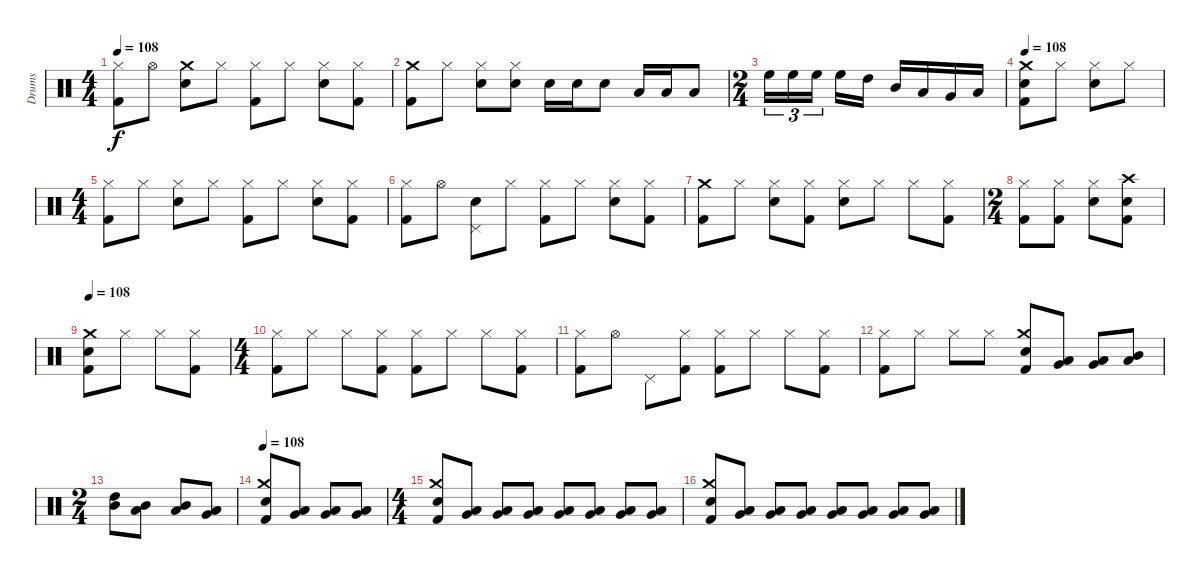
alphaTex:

\track ("Drums" "Drums") {instrument percussion}
\staff {score}
\articulation defaults
\ts (4 4)
\tempo 108
\clef neutral
\ks c
("Hi-Hat (closed)" "Kick (hit) 2").8{dy f} "Hi-Hat (open)".8 ("Crash medium (hit)" "Snare (hit) 2").8 "Hi-Hat (closed)".8 ("Hi-Hat (closed)" "Kick (hit) 2").8 "Hi-Hat (closed)".8 ("Hi-Hat (closed)" "Snare (hit) 2").8 ("Hi-Hat (closed)" "Kick (hit) 2").8 |
("Crash medium (hit)" "Kick (hit) 2").8 "Hi-Hat (closed)".8 ("Hi-Hat (closed)" "Snare (hit) 2").8 ("Hi-Hat (closed)" "Snare (hit) 2").8 "Snare (hit) 2".16 "Snare (hit) 2".16 "Snare (hit) 2".8 "Low Tom (hit)".16 "Low Tom (hit)".16 "Low Tom (hit)".8 |
\ts (2 4)
"High Floor Tom (hit)".16{tu (3 2)} "High Floor Tom (hit)".16{tu (3 2)} "High Floor Tom (hit)".16{tu (3 2) beam splitsecondary} "High Floor Tom (hit)".16 "High Tom (hit)".16 "Mid Tom (hit)".16 "Low Tom (hit)".16 "Very Low Tom (hit)".16 "Low Floor Tom (hit)".16 |
\tempo 108
("Crash medium (hit)" "Snare (hit) 2" "Kick (hit) 2").8 "Hi-Hat (closed)".8 ("Hi-Hat (closed)" "Snare (hit) 2").8 "Hi-Hat (closed)".8 |
\ts (4 4)
("Hi-Hat (closed)" "Kick (hit) 2").8 "Hi-Hat (closed)".8 ("Hi-Hat (closed)" "Snare (hit) 2").8 "Hi-Hat (closed)".8 ("Hi-Hat (closed)" "Kick (hit) 2").8 "Hi-Hat (closed)".8 ("Hi-Hat (closed)" "Snare (hit) 2").8 ("Hi-Hat (closed)" "Kick (hit) 2").8 |
("Hi-Hat (closed)" "Kick (hit) 2").8 "Hi-Hat (open)".8 ("Pedal Hi-Hat (hit)" "Snare (hit) 2").8 "Hi-Hat (closed)".8 ("Hi-Hat (closed)" "Kick (hit) 2").8 "Hi-Hat (closed)".8 ("Hi-Hat (closed)" "Snare (hit) 2").8 ("Hi-Hat (closed)" "Kick (hit) 2").8 |
("Crash medium (hit)" "Kick (hit) 2").8 "Hi-Hat (closed)".8 ("Hi-Hat (closed)" "Snare (hit) 2").8 ("Hi-Hat (closed)" "Kick (hit) 2").8 ("Hi-Hat (closed)" "Snare (hit) 2").8 "Hi-Hat (closed)".8 "Hi-Hat (closed)".8 ("Hi-Hat (closed)" "Kick (hit) 2").8 |
\ts (2 4)
("Hi-Hat (closed)" "Kick (hit) 2").8 ("Hi-Hat (closed)" "Kick (hit) 2").8 ("Hi-Hat (closed)" "Snare (hit) 2").8 ("Crash high (hit)" "Snare (hit) 2" "Kick (hit) 2").8 |
\tempo 108
("Crash medium (hit)" "Snare (hit) 2" "Kick (hit) 2").8 "Hi-Hat (closed)".8 "Hi-Hat (closed)".8 ("Hi-Hat (closed)" "Kick (hit) 2").8 |
\ts (4 4)
("Hi-Hat (closed)" "Kick (hit) 2").8 "Hi-Hat (closed)".8 "Hi-Hat (closed)".8 ("Hi-Hat (closed)" "Kick (hit) 2").8 ("Hi-Hat (closed)" "Kick (hit) 2").8 "Hi-Hat (closed)".8 "Hi-Hat (closed)".8 ("Hi-Hat (closed)" "Kick (hit) 2").8 |
("Hi-Hat (closed)" "Kick (hit) 2").8 "Hi-Hat (open)".8 "Pedal Hi-Hat (hit)".8 ("Hi-Hat (closed)" "Kick (hit) 2").8 ("Hi-Hat (closed)" "Kick (hit) 2").8 "Hi-Hat (closed)".8 "Hi-Hat (closed)".8 ("Hi-Hat (closed)" "Kick (hit) 2").8 |
("Hi-Hat (closed)" "Kick (hit) 2").8 "Hi-Hat (closed)".8 "Hi-Hat (closed)".8 "Hi-Hat (closed)".8 ("Crash medium (hit)" "Snare (hit) 2" "Kick (hit) 2").8 ("Low Floor Tom (hit)" "Very Low Tom (hit)").8 ("Low Floor Tom (hit)" "Very Low Tom (hit)").8 ("Low Tom (hit)" "Mid Tom (hit)").8 |
\ts (2 4)
("High Tom (hit)" "Mid Tom (hit)").8 ("Mid Tom (hit)" "Low Tom (hit)").8 ("Mid Tom (hit)" "Low Tom (hit)").8 ("Very Low Tom (hit)" "Low Floor Tom (hit)").8 |
\tempo 108
("Crash medium (hit)" "Snare (hit) 2" "Kick (hit) 2").8 ("Low Floor Tom (hit)" "Very Low Tom (hit)").8 ("Low Floor Tom (hit)" "Very Low Tom (hit)").8 ("Low Floor Tom (hit)" "Very Low Tom (hit)").8 |
\ts (4 4)
("Crash medium (hit)" "Snare (hit) 2" "Kick (hit) 2").8 ("Low Floor Tom (hit)" "Very Low Tom (hit)").8 ("Low Floor Tom (hit)" "Very Low Tom (hit)").8 ("Low Floor Tom (hit)" "Very Low Tom (hit)").8 ("Low Floor Tom (hit)" "Very Low Tom (hit)").8 ("Low Floor Tom (hit)" "Very Low Tom (hit)").8 ("Low Floor Tom (hit)" "Very Low Tom (hit)").8 ("Low Floor Tom (hit)" "Very Low Tom (hit)").8 |
("Crash medium (hit)" "Snare (hit) 2" "Kick (hit) 2").8 ("Low Floor Tom (hit)" "Very Low Tom (hit)").8 ("Low Floor Tom (hit)" "Very Low Tom (hit)").8 ("Low Floor Tom (hit)" "Very Low Tom (hit)").8 ("Low Floor Tom (hit)" "Very Low Tom (hit)").8 ("Low Floor Tom (hit)" "Very Low Tom (hit)").8 ("Low Floor Tom (hit)" "Very Low Tom (hit)").8 ("Low Floor Tom (hit)" "Very Low Tom (hit)").8
